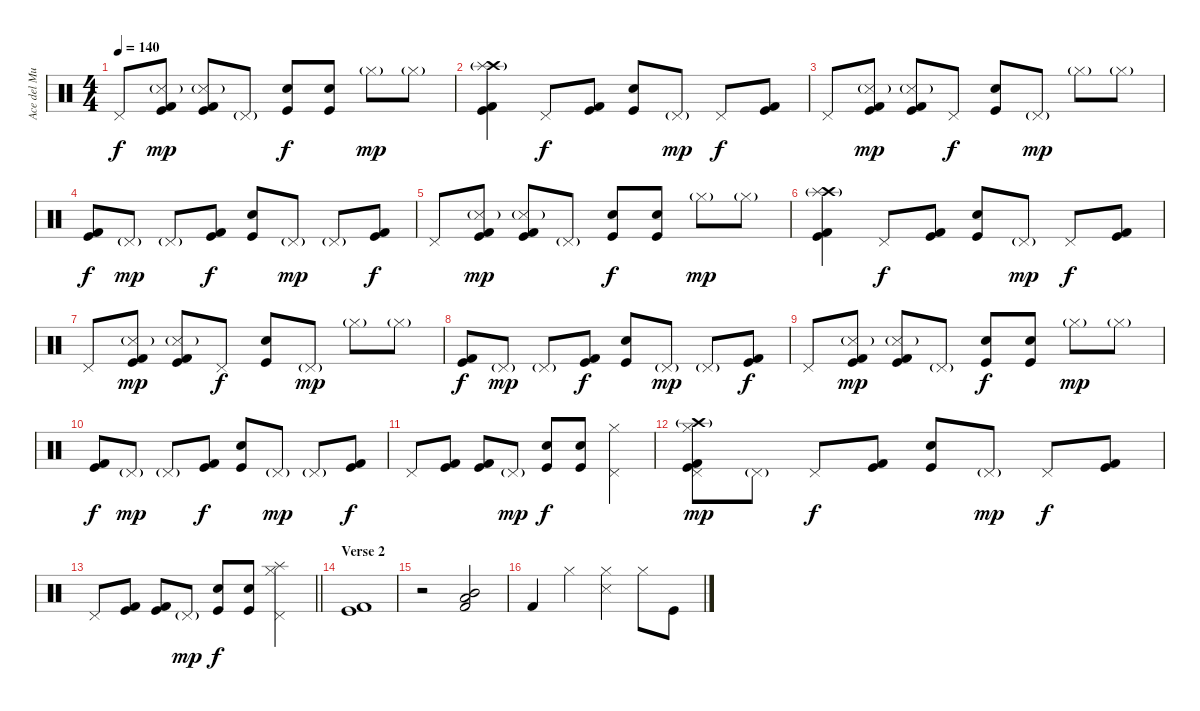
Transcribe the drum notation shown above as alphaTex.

\track ("Ace del Mundo(Drums)" "Ace del Mu") {instrument percussion}
\staff {score}
\articulation defaults
\ts (4 4)
\tempo 140
\clef neutral
\ks c "Pedal Hi-Hat (hit)".8{dy f}
("Kick (hit) 2" "Kick (hit)" "Snare (side stick) 3"{g}).8{dy mp} ("Kick (hit) 2" "Kick (hit)" "Snare (side stick) 3"{g}).8 "Pedal Hi-Hat (hit)"{g}.8 ("Electric Snare (hit)" "Kick (hit)").8{dy f} ("Electric Snare (hit)" "Kick (hit)").8 "Hi-Hat (closed)"{g}.8{dy mp} "Hi-Hat (closed)"{g}.8 |
("Crash high (hit)"{g} "Splash (hit)"{g} "Kick (hit) 2" "Kick (hit)").4 "Pedal Hi-Hat (hit)".8{dy f} ("Kick (hit) 2" "Kick (hit)").8 ("Electric Snare (hit)" "Kick (hit)").8 "Pedal Hi-Hat (hit)"{g}.8{dy mp} "Pedal Hi-Hat (hit)".8{dy f} ("Kick (hit) 2" "Kick (hit)").8 |
"Pedal Hi-Hat (hit)".8 ("Kick (hit) 2" "Kick (hit)" "Snare (side stick) 3"{g}).8{dy mp} ("Kick (hit) 2" "Kick (hit)" "Snare (side stick) 3"{g}).8 "Pedal Hi-Hat (hit)".8{dy f} ("Electric Snare (hit)" "Kick (hit)").8 "Pedal Hi-Hat (hit)"{g}.8{dy mp} "Hi-Hat (closed)"{g}.8 "Hi-Hat (closed)"{g}.8 |
("Kick (hit) 2" "Kick (hit)").8{dy f} "Pedal Hi-Hat (hit)"{g}.8{dy mp} "Pedal Hi-Hat (hit)"{g}.8 ("Kick (hit) 2" "Kick (hit)").8{dy f} ("Electric Snare (hit)" "Kick (hit)").8 "Pedal Hi-Hat (hit)"{g}.8{dy mp} "Pedal Hi-Hat (hit)"{g}.8 ("Kick (hit) 2" "Kick (hit)").8{dy f} |
"Pedal Hi-Hat (hit)".8 ("Kick (hit) 2" "Kick (hit)" "Snare (side stick) 3"{g}).8{dy mp} ("Kick (hit) 2" "Kick (hit)" "Snare (side stick) 3"{g}).8 "Pedal Hi-Hat (hit)"{g}.8 ("Electric Snare (hit)" "Kick (hit)").8{dy f} ("Electric Snare (hit)" "Kick (hit)").8 "Hi-Hat (closed)"{g}.8{dy mp} "Hi-Hat (closed)"{g}.8 |
("Crash high (hit)"{g} "Splash (hit)"{g} "Kick (hit) 2" "Kick (hit)").4 "Pedal Hi-Hat (hit)".8{dy f} ("Kick (hit) 2" "Kick (hit)").8 ("Electric Snare (hit)" "Kick (hit)").8 "Pedal Hi-Hat (hit)"{g}.8{dy mp} "Pedal Hi-Hat (hit)".8{dy f} ("Kick (hit) 2" "Kick (hit)").8 |
"Pedal Hi-Hat (hit)".8 ("Kick (hit) 2" "Kick (hit)" "Snare (side stick) 3"{g}).8{dy mp} ("Kick (hit) 2" "Kick (hit)" "Snare (side stick) 3"{g}).8 "Pedal Hi-Hat (hit)".8{dy f} ("Electric Snare (hit)" "Kick (hit)").8 "Pedal Hi-Hat (hit)"{g}.8{dy mp} "Hi-Hat (closed)"{g}.8 "Hi-Hat (closed)"{g}.8 |
("Kick (hit) 2" "Kick (hit)").8{dy f} "Pedal Hi-Hat (hit)"{g}.8{dy mp} "Pedal Hi-Hat (hit)"{g}.8 ("Kick (hit) 2" "Kick (hit)").8{dy f} ("Electric Snare (hit)" "Kick (hit)").8 "Pedal Hi-Hat (hit)"{g}.8{dy mp} "Pedal Hi-Hat (hit)"{g}.8 ("Kick (hit) 2" "Kick (hit)").8{dy f} |
"Pedal Hi-Hat (hit)".8 ("Kick (hit) 2" "Kick (hit)" "Snare (side stick) 3"{g}).8{dy mp} ("Kick (hit) 2" "Kick (hit)" "Snare (side stick) 3"{g}).8 "Pedal Hi-Hat (hit)"{g}.8 ("Electric Snare (hit)" "Kick (hit)").8{dy f} ("Electric Snare (hit)" "Kick (hit)").8 "Hi-Hat (closed)"{g}.8{dy mp} "Hi-Hat (closed)"{g}.8 |
("Kick (hit) 2" "Kick (hit)").8{dy f} "Pedal Hi-Hat (hit)"{g}.8{dy mp} "Pedal Hi-Hat (hit)"{g}.8 ("Kick (hit) 2" "Kick (hit)").8{dy f} ("Electric Snare (hit)" "Kick (hit)").8 "Pedal Hi-Hat (hit)"{g}.8{dy mp} "Pedal Hi-Hat (hit)"{g}.8 ("Kick (hit) 2" "Kick (hit)").8{dy f} |
"Pedal Hi-Hat (hit)".8 ("Kick (hit) 2" "Kick (hit)").8 ("Kick (hit) 2" "Kick (hit)").8 "Pedal Hi-Hat (hit)"{g}.8{dy mp} ("Electric Snare (hit)" "Kick (hit)").8{dy f} ("Electric Snare (hit)" "Kick (hit)").8 ("Hi-Hat (closed)" "Pedal Hi-Hat (hit)").4 |
("Kick (hit) 2" "Kick (hit)" "Pedal Hi-Hat (hit)" "Hi-Hat (closed)" "Crash high (hit)"{g}).8{dy mp} "Pedal Hi-Hat (hit)"{g}.8 "Pedal Hi-Hat (hit)".8{dy f} ("Kick (hit) 2" "Kick (hit)").8 ("Electric Snare (hit)" "Kick (hit)").8 "Pedal Hi-Hat (hit)"{g}.8{dy mp} "Pedal Hi-Hat (hit)".8{dy f} ("Kick (hit) 2" "Kick (hit)").8 |
\barLineRight lightlight "Pedal Hi-Hat (hit)".8
("Kick (hit) 2" "Kick (hit)").8 ("Kick (hit) 2" "Kick (hit)").8 "Pedal Hi-Hat (hit)"{g}.8{dy mp} ("Electric Snare (hit)" "Kick (hit)").8{dy f} ("Electric Snare (hit)" "Kick (hit)").8 ("Hi-Hat (closed)" "Pedal Hi-Hat (hit)" "Splash (hit)").4 |
\section ("" "Verse 2")
("Kick (hit) 2" "Kick (hit)").1 |
r.2 ("Mid Tom (hit)" "Low Tom (hit)" "Kick (hit) 2").2{bd 60} |
"Kick (hit) 2".4 "Hi-Hat (closed)".4 ("Hi-Hat (closed)" "Snare (side stick) 3").4 "Hi-Hat (closed)".8 "Kick (hit)".8
